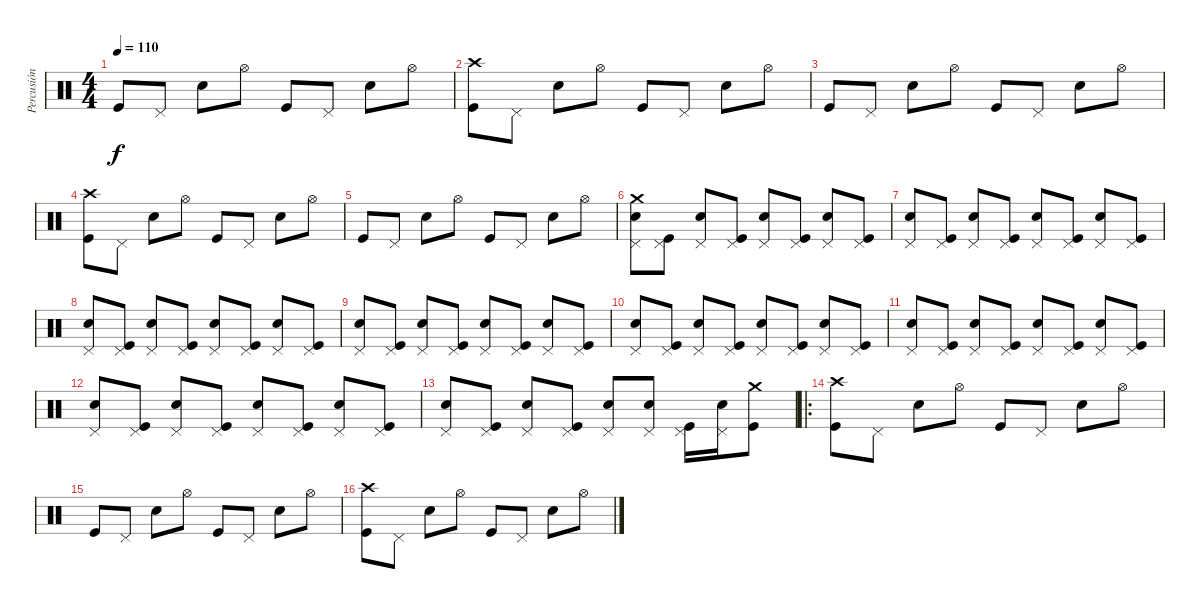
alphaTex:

\track ("Percusión" "Percusión") {instrument percussion}
\staff {score}
\articulation defaults
\ts (4 4)
\tempo 110
\clef neutral
\ks c "Kick (hit)".8{dy f} "Pedal Hi-Hat (hit)".8 "Electric Snare (hit)".8 "Hi-Hat (open)".8 "Kick (hit)".8 "Pedal Hi-Hat (hit)".8 "Electric Snare (hit)".8 "Hi-Hat (open)".8
|
("Kick (hit)" "Crash high (hit)").8 "Pedal Hi-Hat (hit)".8 "Electric Snare (hit)".8 "Hi-Hat (open)".8 "Kick (hit)".8 "Pedal Hi-Hat (hit)".8 "Electric Snare (hit)".8 "Hi-Hat (open)".8 |
"Kick (hit)".8 "Pedal Hi-Hat (hit)".8 "Electric Snare (hit)".8 "Hi-Hat (open)".8 "Kick (hit)".8 "Pedal Hi-Hat (hit)".8 "Electric Snare (hit)".8 "Hi-Hat (open)".8 |
("Kick (hit)" "Crash high (hit)").8 "Pedal Hi-Hat (hit)".8 "Electric Snare (hit)".8 "Hi-Hat (open)".8 "Kick (hit)".8 "Pedal Hi-Hat (hit)".8 "Electric Snare (hit)".8 "Hi-Hat (open)".8 |
"Kick (hit)".8 "Pedal Hi-Hat (hit)".8 "Electric Snare (hit)".8 "Hi-Hat (open)".8 "Kick (hit)".8 "Pedal Hi-Hat (hit)".8 "Electric Snare (hit)".8 "Hi-Hat (open)".8 |
("Pedal Hi-Hat (hit)" "Electric Snare (hit)" "Crash medium (hit)").8 ("Pedal Hi-Hat (hit)" "Kick (hit)").8 ("Pedal Hi-Hat (hit)" "Electric Snare (hit)").8 ("Pedal Hi-Hat (hit)" "Kick (hit)").8 ("Pedal Hi-Hat (hit)" "Electric Snare (hit)").8 ("Pedal Hi-Hat (hit)" "Kick (hit)").8 ("Pedal Hi-Hat (hit)" "Electric Snare (hit)").8 ("Pedal Hi-Hat (hit)" "Kick (hit)").8 |
("Pedal Hi-Hat (hit)" "Electric Snare (hit)").8 ("Pedal Hi-Hat (hit)" "Kick (hit)").8 ("Pedal Hi-Hat (hit)" "Electric Snare (hit)").8 ("Pedal Hi-Hat (hit)" "Kick (hit)").8 ("Pedal Hi-Hat (hit)" "Electric Snare (hit)").8 ("Pedal Hi-Hat (hit)" "Kick (hit)").8 ("Pedal Hi-Hat (hit)" "Electric Snare (hit)").8 ("Pedal Hi-Hat (hit)" "Kick (hit)").8 |
("Pedal Hi-Hat (hit)" "Electric Snare (hit)").8 ("Pedal Hi-Hat (hit)" "Kick (hit)").8 ("Pedal Hi-Hat (hit)" "Electric Snare (hit)").8 ("Pedal Hi-Hat (hit)" "Kick (hit)").8 ("Pedal Hi-Hat (hit)" "Electric Snare (hit)").8 ("Pedal Hi-Hat (hit)" "Kick (hit)").8 ("Pedal Hi-Hat (hit)" "Electric Snare (hit)").8 ("Pedal Hi-Hat (hit)" "Kick (hit)").8 |
("Pedal Hi-Hat (hit)" "Electric Snare (hit)").8 ("Pedal Hi-Hat (hit)" "Kick (hit)").8 ("Pedal Hi-Hat (hit)" "Electric Snare (hit)").8 ("Pedal Hi-Hat (hit)" "Kick (hit)").8 ("Pedal Hi-Hat (hit)" "Electric Snare (hit)").8 ("Pedal Hi-Hat (hit)" "Kick (hit)").8 ("Pedal Hi-Hat (hit)" "Electric Snare (hit)").8 ("Pedal Hi-Hat (hit)" "Kick (hit)").8 |
("Pedal Hi-Hat (hit)" "Electric Snare (hit)").8 ("Pedal Hi-Hat (hit)" "Kick (hit)").8 ("Pedal Hi-Hat (hit)" "Electric Snare (hit)").8 ("Pedal Hi-Hat (hit)" "Kick (hit)").8 ("Pedal Hi-Hat (hit)" "Electric Snare (hit)").8 ("Pedal Hi-Hat (hit)" "Kick (hit)").8 ("Pedal Hi-Hat (hit)" "Electric Snare (hit)").8 ("Pedal Hi-Hat (hit)" "Kick (hit)").8 |
("Pedal Hi-Hat (hit)" "Electric Snare (hit)").8 ("Pedal Hi-Hat (hit)" "Kick (hit)").8 ("Pedal Hi-Hat (hit)" "Electric Snare (hit)").8 ("Pedal Hi-Hat (hit)" "Kick (hit)").8 ("Pedal Hi-Hat (hit)" "Electric Snare (hit)").8 ("Pedal Hi-Hat (hit)" "Kick (hit)").8 ("Pedal Hi-Hat (hit)" "Electric Snare (hit)").8 ("Pedal Hi-Hat (hit)" "Kick (hit)").8 |
("Pedal Hi-Hat (hit)" "Electric Snare (hit)").8 ("Pedal Hi-Hat (hit)" "Kick (hit)").8 ("Pedal Hi-Hat (hit)" "Electric Snare (hit)").8 ("Pedal Hi-Hat (hit)" "Kick (hit)").8 ("Pedal Hi-Hat (hit)" "Electric Snare (hit)").8 ("Pedal Hi-Hat (hit)" "Kick (hit)").8 ("Pedal Hi-Hat (hit)" "Electric Snare (hit)").8 ("Pedal Hi-Hat (hit)" "Kick (hit)").8 |
("Pedal Hi-Hat (hit)" "Electric Snare (hit)").8 ("Pedal Hi-Hat (hit)" "Kick (hit)").8 ("Pedal Hi-Hat (hit)" "Electric Snare (hit)").8 ("Pedal Hi-Hat (hit)" "Kick (hit)").8 ("Pedal Hi-Hat (hit)" "Electric Snare (hit)").8 ("Pedal Hi-Hat (hit)" "Electric Snare (hit)").8 ("Pedal Hi-Hat (hit)" "Kick (hit)").16 ("Pedal Hi-Hat (hit)" "Electric Snare (hit)").16 ("Crash medium (hit)" "Kick (hit)").8 |
\ro
("Kick (hit)" "Crash high (hit)").8 "Pedal Hi-Hat (hit)".8 "Electric Snare (hit)".8 "Hi-Hat (open)".8 "Kick (hit)".8 "Pedal Hi-Hat (hit)".8 "Electric Snare (hit)".8 "Hi-Hat (open)".8 |
"Kick (hit)".8 "Pedal Hi-Hat (hit)".8 "Electric Snare (hit)".8 "Hi-Hat (open)".8 "Kick (hit)".8 "Pedal Hi-Hat (hit)".8 "Electric Snare (hit)".8 "Hi-Hat (open)".8 |
("Kick (hit)" "Crash high (hit)").8 "Pedal Hi-Hat (hit)".8 "Electric Snare (hit)".8 "Hi-Hat (open)".8 "Kick (hit)".8 "Pedal Hi-Hat (hit)".8 "Electric Snare (hit)".8 "Hi-Hat (open)".8
